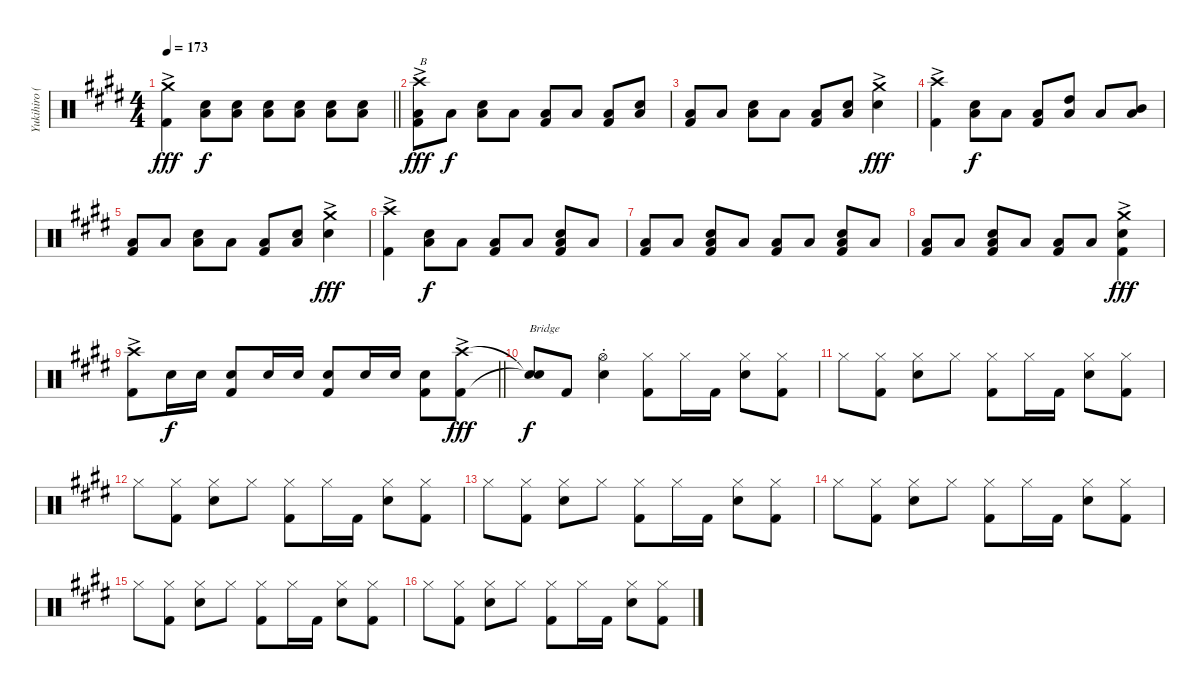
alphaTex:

\track ("Yukihiro (Drums)" "Yukihiro (") {instrument percussion}
\staff {score}
\articulation defaults
\ts (4 4)
\tempo 173
\clef neutral
\barLineRight lightlight
\ks e
("Crash medium (hit)"{ac} "Kick (hit) 2").4{dy fff} ("Electric Snare (hit)" "Low Tom (hit)").8{dy f} ("Electric Snare (hit)" "Low Tom (hit)").8 ("Electric Snare (hit)" "Low Tom (hit)").8 ("Electric Snare (hit)" "Low Tom (hit)").8 ("Electric Snare (hit)" "Low Tom (hit)").8 ("Electric Snare (hit)" "Low Tom (hit)").8 |
("Crash high (hit)"{ac} "Low Tom (hit)" "Kick (hit) 2").8{txt "B" dy fff} "Low Tom (hit)".8{dy f} ("Electric Snare (hit)" "Low Tom (hit)").8 "Low Tom (hit)".8 ("Low Tom (hit)" "Kick (hit) 2").8 "Low Tom (hit)".8 ("Low Tom (hit)" "Kick (hit) 2").8 ("Electric Snare (hit)" "Low Tom (hit)").8 |
("Low Tom (hit)" "Kick (hit) 2").8 "Low Tom (hit)".8 ("Electric Snare (hit)" "Low Tom (hit)").8 "Low Tom (hit)".8 ("Low Tom (hit)" "Kick (hit) 2").8 ("Electric Snare (hit)" "Low Tom (hit)").8 ("Crash medium (hit)"{ac} "Electric Snare (hit)").4{dy fff} |
("Crash high (hit)"{ac} "Kick (hit) 2").4 ("Electric Snare (hit)" "Low Tom (hit)").8{dy f} "Low Tom (hit)".8 ("Low Tom (hit)" "Kick (hit) 2").8 ("Low Tom (hit)" "High Tom (hit)").8 "Low Tom (hit)".8 ("Low Tom (hit)" "Mid Tom (hit)").8 |
("Low Tom (hit)" "Kick (hit) 2").8 "Low Tom (hit)".8 ("Electric Snare (hit)" "Low Tom (hit)").8 "Low Tom (hit)".8 ("Low Tom (hit)" "Kick (hit) 2").8 ("Electric Snare (hit)" "Low Tom (hit)").8 ("Crash medium (hit)"{ac} "Electric Snare (hit)").4{dy fff} |
("Crash high (hit)"{ac} "Kick (hit) 2").4 ("Electric Snare (hit)" "Low Tom (hit)").8{dy f} "Low Tom (hit)".8 ("Low Tom (hit)" "Kick (hit) 2").8 "Low Tom (hit)".8 ("Electric Snare (hit)" "Low Tom (hit)" "Kick (hit) 2").8 "Low Tom (hit)".8 |
("Low Tom (hit)" "Kick (hit) 2").8 "Low Tom (hit)".8 ("Electric Snare (hit)" "Low Tom (hit)" "Kick (hit) 2").8 "Low Tom (hit)".8 ("Low Tom (hit)" "Kick (hit) 2").8 "Low Tom (hit)".8 ("Electric Snare (hit)" "Low Tom (hit)" "Kick (hit) 2").8 "Low Tom (hit)".8 |
("Low Tom (hit)" "Kick (hit) 2").8 "Low Tom (hit)".8 ("Electric Snare (hit)" "Low Tom (hit)" "Kick (hit) 2").8 "Low Tom (hit)".8 ("Low Tom (hit)" "Kick (hit) 2").8 "Low Tom (hit)".8 ("Crash medium (hit)"{ac} "Electric Snare (hit)" "Kick (hit) 2").4{dy fff} |
\barLineRight lightlight
("Crash high (hit)"{ac} "Kick (hit) 2").8 "Electric Snare (hit)".16{dy f} "Electric Snare (hit)".16 ("Electric Snare (hit)" "Kick (hit) 2").8 "Electric Snare (hit)".16 "Electric Snare (hit)".16 ("Electric Snare (hit)" "Kick (hit) 2").8 "Electric Snare (hit)".16 "Electric Snare (hit)".16 ("Electric Snare (hit)" "Kick (hit) 2").8 ("Crash high (hit)"{ac} "Kick (hit) 2").8{dy fff} |
("Snare (hit)"{t} "Snare (hit)"{t}).8{txt "Bridge" dy f} "Kick (hit) 2".8 ("Hi-Hat (open)"{st} "Electric Snare (hit)").4 ("Hi-Hat (closed)" "Kick (hit) 2").8 "Hi-Hat (closed)".16 "Kick (hit) 2".16 ("Hi-Hat (closed)" "Electric Snare (hit)").8 ("Hi-Hat (closed)" "Kick (hit) 2").8 |
"Hi-Hat (closed)".8 ("Hi-Hat (closed)" "Kick (hit) 2").8 ("Hi-Hat (closed)" "Electric Snare (hit)").8 "Hi-Hat (closed)".8 ("Hi-Hat (closed)" "Kick (hit) 2").8 "Hi-Hat (closed)".16 "Kick (hit) 2".16 ("Hi-Hat (closed)" "Electric Snare (hit)").8 ("Hi-Hat (closed)" "Kick (hit) 2").8 |
"Hi-Hat (closed)".8 ("Hi-Hat (closed)" "Kick (hit) 2").8 ("Hi-Hat (closed)" "Electric Snare (hit)").8 "Hi-Hat (closed)".8 ("Hi-Hat (closed)" "Kick (hit) 2").8 "Hi-Hat (closed)".16 "Kick (hit) 2".16 ("Hi-Hat (closed)" "Electric Snare (hit)").8 ("Hi-Hat (closed)" "Kick (hit) 2").8 |
"Hi-Hat (closed)".8 ("Hi-Hat (closed)" "Kick (hit) 2").8 ("Hi-Hat (closed)" "Electric Snare (hit)").8 "Hi-Hat (closed)".8 ("Hi-Hat (closed)" "Kick (hit) 2").8 "Hi-Hat (closed)".16 "Kick (hit) 2".16 ("Hi-Hat (closed)" "Electric Snare (hit)").8 ("Hi-Hat (closed)" "Kick (hit) 2").8 |
"Hi-Hat (closed)".8 ("Hi-Hat (closed)" "Kick (hit) 2").8 ("Hi-Hat (closed)" "Electric Snare (hit)").8 "Hi-Hat (closed)".8 ("Hi-Hat (closed)" "Kick (hit) 2").8 "Hi-Hat (closed)".16 "Kick (hit) 2".16 ("Hi-Hat (closed)" "Electric Snare (hit)").8 ("Hi-Hat (closed)" "Kick (hit) 2").8 |
"Hi-Hat (closed)".8 ("Hi-Hat (closed)" "Kick (hit) 2").8 ("Hi-Hat (closed)" "Electric Snare (hit)").8 "Hi-Hat (closed)".8 ("Hi-Hat (closed)" "Kick (hit) 2").8 "Hi-Hat (closed)".16 "Kick (hit) 2".16 ("Hi-Hat (closed)" "Electric Snare (hit)").8 ("Hi-Hat (closed)" "Kick (hit) 2").8 |
"Hi-Hat (closed)".8 ("Hi-Hat (closed)" "Kick (hit) 2").8 ("Hi-Hat (closed)" "Electric Snare (hit)").8 "Hi-Hat (closed)".8 ("Hi-Hat (closed)" "Kick (hit) 2").8 "Hi-Hat (closed)".16 "Kick (hit) 2".16 ("Hi-Hat (closed)" "Electric Snare (hit)").8 ("Hi-Hat (closed)" "Kick (hit) 2").8
